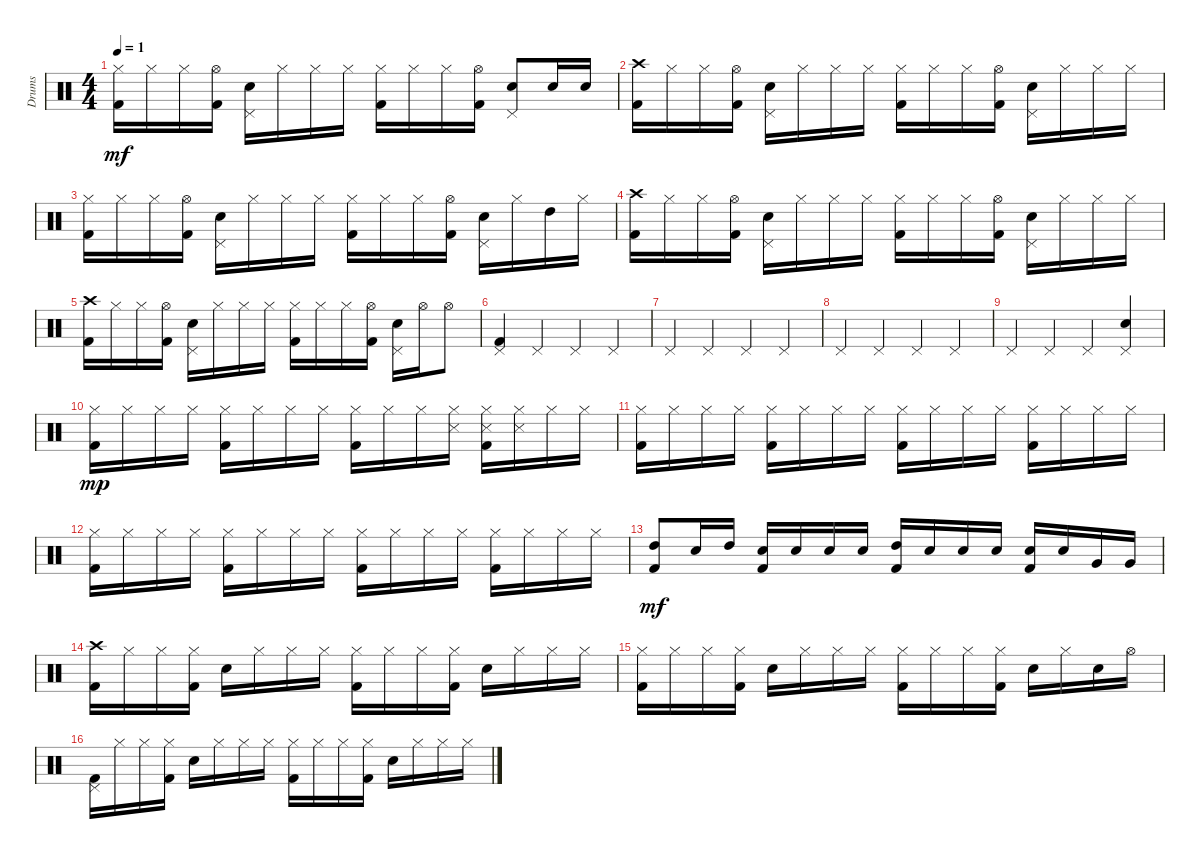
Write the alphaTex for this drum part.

\track ("Drums" "Drums") {instrument percussion}
\staff {score}
\articulation defaults
\ts (4 4)
\tempo 1
\clef neutral
\ks c
("Kick (hit) 2" "Hi-Hat (closed)").16{dy mf} "Hi-Hat (closed)".16 "Hi-Hat (closed)".16 ("Kick (hit) 2" "Hi-Hat (open)").16 ("Snare (hit) 2" "Pedal Hi-Hat (hit)").16 "Hi-Hat (closed)".16 "Hi-Hat (closed)".16 "Hi-Hat (closed)".16 ("Hi-Hat (closed)" "Kick (hit) 2").16 "Hi-Hat (closed)".16 "Hi-Hat (closed)".16 ("Hi-Hat (open)" "Kick (hit) 2").16 ("Snare (hit) 2" "Pedal Hi-Hat (hit)").8 "Snare (hit) 2".16 "Snare (hit) 2".16 |
("Kick (hit) 2" "Crash high (hit)").16 "Hi-Hat (closed)".16 "Hi-Hat (closed)".16 ("Kick (hit) 2" "Hi-Hat (open)").16 ("Snare (hit) 2" "Pedal Hi-Hat (hit)").16 "Hi-Hat (closed)".16 "Hi-Hat (closed)".16 "Hi-Hat (closed)".16 ("Hi-Hat (closed)" "Kick (hit) 2").16 "Hi-Hat (closed)".16 "Hi-Hat (closed)".16 ("Hi-Hat (open)" "Kick (hit) 2").16 ("Snare (hit) 2" "Pedal Hi-Hat (hit)").16 "Hi-Hat (closed)".16 "Hi-Hat (closed)".16 "Hi-Hat (closed)".16 |
("Kick (hit) 2" "Hi-Hat (closed)").16 "Hi-Hat (closed)".16 "Hi-Hat (closed)".16 ("Kick (hit) 2" "Hi-Hat (open)").16 ("Snare (hit) 2" "Pedal Hi-Hat (hit)").16 "Hi-Hat (closed)".16 "Hi-Hat (closed)".16 "Hi-Hat (closed)".16 ("Hi-Hat (closed)" "Kick (hit) 2").16 "Hi-Hat (closed)".16 "Hi-Hat (closed)".16 ("Hi-Hat (open)" "Kick (hit) 2").16 ("Snare (hit) 2" "Pedal Hi-Hat (hit)").16 "Hi-Hat (closed)".16 "High Tom (hit)".16 "Hi-Hat (closed)".16 |
("Kick (hit) 2" "Crash high (hit)").16 "Hi-Hat (closed)".16 "Hi-Hat (closed)".16 ("Kick (hit) 2" "Hi-Hat (open)").16 ("Snare (hit) 2" "Pedal Hi-Hat (hit)").16 "Hi-Hat (closed)".16 "Hi-Hat (closed)".16 "Hi-Hat (closed)".16 ("Hi-Hat (closed)" "Kick (hit) 2").16 "Hi-Hat (closed)".16 "Hi-Hat (closed)".16 ("Hi-Hat (open)" "Kick (hit) 2").16 ("Snare (hit) 2" "Pedal Hi-Hat (hit)").16 "Hi-Hat (closed)".16 "Hi-Hat (closed)".16 "Hi-Hat (closed)".16 |
("Kick (hit) 2" "Crash high (hit)").16 "Hi-Hat (closed)".16 "Hi-Hat (closed)".16 ("Kick (hit) 2" "Hi-Hat (open)").16 ("Snare (hit) 2" "Pedal Hi-Hat (hit)").16 "Hi-Hat (closed)".16 "Hi-Hat (closed)".16 "Hi-Hat (closed)".16 ("Hi-Hat (closed)" "Kick (hit) 2").16 "Hi-Hat (closed)".16 "Hi-Hat (closed)".16 ("Hi-Hat (open)" "Kick (hit) 2").16 ("Snare (hit) 2" "Pedal Hi-Hat (hit)").16 "Hi-Hat (open)".16 "Hi-Hat (open)".8 |
("Pedal Hi-Hat (hit)" "Kick (hit) 2").4 "Pedal Hi-Hat (hit)".4 "Pedal Hi-Hat (hit)".4 "Pedal Hi-Hat (hit)".4 |
"Pedal Hi-Hat (hit)".4 "Pedal Hi-Hat (hit)".4 "Pedal Hi-Hat (hit)".4 "Pedal Hi-Hat (hit)".4 |
"Pedal Hi-Hat (hit)".4 "Pedal Hi-Hat (hit)".4 "Pedal Hi-Hat (hit)".4 "Pedal Hi-Hat (hit)".4 |
"Pedal Hi-Hat (hit)".4 "Pedal Hi-Hat (hit)".4 "Pedal Hi-Hat (hit)".4 ("Pedal Hi-Hat (hit)" "Snare (hit) 2").4 |
("Hi-Hat (closed)" "Kick (hit) 2").16{dy mp} "Hi-Hat (closed)".16 "Hi-Hat (closed)".16 "Hi-Hat (closed)".16 ("Hi-Hat (closed)" "Kick (hit) 2").16 "Hi-Hat (closed)".16 "Hi-Hat (closed)".16 "Hi-Hat (closed)".16 ("Hi-Hat (closed)" "Kick (hit) 2").16 "Hi-Hat (closed)".16 "Hi-Hat (closed)".16 ("Hi-Hat (closed)" "Snare (side stick) 3").16 ("Hi-Hat (closed)" "Kick (hit) 2" "Snare (side stick) 3").16 ("Hi-Hat (closed)" "Snare (side stick) 3").16 "Hi-Hat (closed)".16 "Hi-Hat (closed)".16 |
("Hi-Hat (closed)" "Kick (hit) 2").16 "Hi-Hat (closed)".16 "Hi-Hat (closed)".16 "Hi-Hat (closed)".16 ("Hi-Hat (closed)" "Kick (hit) 2").16 "Hi-Hat (closed)".16 "Hi-Hat (closed)".16 "Hi-Hat (closed)".16 ("Hi-Hat (closed)" "Kick (hit) 2").16 "Hi-Hat (closed)".16 "Hi-Hat (closed)".16 "Hi-Hat (closed)".16 ("Hi-Hat (closed)" "Kick (hit) 2").16 "Hi-Hat (closed)".16 "Hi-Hat (closed)".16 "Hi-Hat (closed)".16 |
("Hi-Hat (closed)" "Kick (hit) 2").16 "Hi-Hat (closed)".16 "Hi-Hat (closed)".16 "Hi-Hat (closed)".16 ("Hi-Hat (closed)" "Kick (hit) 2").16 "Hi-Hat (closed)".16 "Hi-Hat (closed)".16 "Hi-Hat (closed)".16 ("Hi-Hat (closed)" "Kick (hit) 2").16 "Hi-Hat (closed)".16 "Hi-Hat (closed)".16 "Hi-Hat (closed)".16 ("Hi-Hat (closed)" "Kick (hit) 2").16 "Hi-Hat (closed)".16 "Hi-Hat (closed)".16 "Hi-Hat (closed)".16 |
("High Tom (hit)" "Kick (hit) 2").8{dy mf} "Snare (hit) 2".16 "High Tom (hit)".16 ("Snare (hit) 2" "Kick (hit) 2").16 "Snare (hit) 2".16 "Snare (hit) 2".16 "Snare (hit) 2".16 ("High Tom (hit)" "Kick (hit) 2").16 "Snare (hit) 2".16 "Snare (hit) 2".16 "Snare (hit) 2".16 ("Snare (hit) 2" "Kick (hit) 2").16 "Snare (hit) 2".16 "Very Low Tom (hit)".16 "Very Low Tom (hit)".16 |
("Kick (hit) 2" "Crash high (hit)").16 "Hi-Hat (closed)".16 "Hi-Hat (closed)".16 ("Kick (hit) 2" "Hi-Hat (closed)").16 "Snare (hit) 2".16 "Hi-Hat (closed)".16 "Hi-Hat (closed)".16 "Hi-Hat (closed)".16 ("Hi-Hat (closed)" "Kick (hit) 2").16 "Hi-Hat (closed)".16 "Hi-Hat (closed)".16 ("Hi-Hat (closed)" "Kick (hit) 2").16 "Snare (hit) 2".16 "Hi-Hat (closed)".16 "Hi-Hat (closed)".16 "Hi-Hat (closed)".16 |
("Kick (hit) 2" "Hi-Hat (closed)").16 "Hi-Hat (closed)".16 "Hi-Hat (closed)".16 ("Kick (hit) 2" "Hi-Hat (closed)").16 "Snare (hit) 2".16 "Hi-Hat (closed)".16 "Hi-Hat (closed)".16 "Hi-Hat (closed)".16 ("Hi-Hat (closed)" "Kick (hit) 2").16 "Hi-Hat (closed)".16 "Hi-Hat (closed)".16 ("Hi-Hat (closed)" "Kick (hit) 2").16 "Snare (hit) 2".16 "Hi-Hat (closed)".16 "Snare (hit) 2".16 "Hi-Hat (open)".16 |
("Kick (hit) 2" "Pedal Hi-Hat (hit)").16 "Hi-Hat (closed)".16 "Hi-Hat (closed)".16 ("Kick (hit) 2" "Hi-Hat (closed)").16 "Snare (hit) 2".16 "Hi-Hat (closed)".16 "Hi-Hat (closed)".16 "Hi-Hat (closed)".16 ("Hi-Hat (closed)" "Kick (hit) 2").16 "Hi-Hat (closed)".16 "Hi-Hat (closed)".16 ("Hi-Hat (closed)" "Kick (hit) 2").16 "Snare (hit) 2".16 "Hi-Hat (closed)".16 "Hi-Hat (closed)".16 "Hi-Hat (closed)".16
